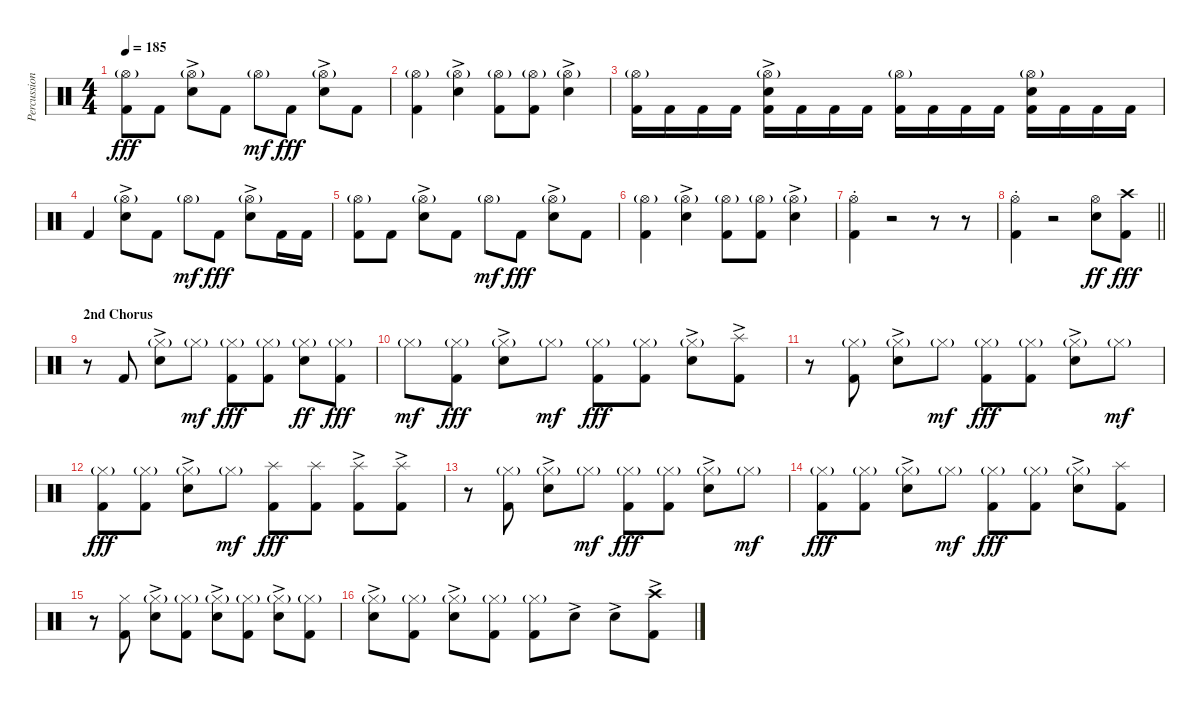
\track ("Percussion , Drums - Travis Smith" "Percussion") {instrument percussion}
\staff {score}
\articulation defaults
\ts (4 4)
\tempo 185
\clef neutral
\ks c
("Hi-Hat (open)"{g} "Kick (hit) 2").8{dy fff} "Kick (hit) 2".8 ("Hi-Hat (open)"{g} "Electric Snare (hit)"{ac}).8 "Kick (hit) 2".8 "Hi-Hat (open)"{g}.8{dy mf} "Kick (hit) 2".8{dy fff} ("Hi-Hat (open)"{g} "Electric Snare (hit)"{ac}).8 "Kick (hit) 2".8 |
("Hi-Hat (open)"{g} "Kick (hit) 2").4 ("Hi-Hat (open)"{g} "Electric Snare (hit)"{ac}).4 ("Hi-Hat (open)"{g} "Kick (hit) 2").8 ("Hi-Hat (open)"{g} "Kick (hit) 2").8 ("Hi-Hat (open)"{g} "Electric Snare (hit)"{ac}).4 |
("Hi-Hat (open)"{g} "Kick (hit) 2").16 "Kick (hit) 2".16 "Kick (hit) 2".16 "Kick (hit) 2".16 ("Hi-Hat (open)"{g} "Electric Snare (hit)"{ac} "Kick (hit) 2").16 "Kick (hit) 2".16 "Kick (hit) 2".16 "Kick (hit) 2".16 ("Hi-Hat (open)"{g} "Kick (hit) 2").16 "Kick (hit) 2".16 "Kick (hit) 2".16 "Kick (hit) 2".16 ("Hi-Hat (open)"{g} "Electric Snare (hit)" "Kick (hit) 2").16 "Kick (hit) 2".16 "Kick (hit) 2".16 "Kick (hit) 2".16 |
"Kick (hit) 2".4 ("Hi-Hat (open)"{g} "Electric Snare (hit)"{ac}).8 "Kick (hit) 2".8 "Hi-Hat (open)"{g}.8{dy mf} "Kick (hit) 2".8{dy fff} ("Hi-Hat (open)"{g} "Electric Snare (hit)"{ac}).8 "Kick (hit) 2".16 "Kick (hit) 2".16 |
("Hi-Hat (open)"{g} "Kick (hit) 2").8 "Kick (hit) 2".8 ("Hi-Hat (open)"{g} "Electric Snare (hit)"{ac}).8 "Kick (hit) 2".8 "Hi-Hat (open)"{g}.8{dy mf} "Kick (hit) 2".8{dy fff} ("Hi-Hat (open)"{g} "Electric Snare (hit)"{ac}).8 "Kick (hit) 2".8 |
("Hi-Hat (open)"{g} "Kick (hit) 2").4 ("Hi-Hat (open)"{g} "Electric Snare (hit)"{ac}).4 ("Hi-Hat (open)"{g} "Kick (hit) 2").8 ("Hi-Hat (open)"{g} "Kick (hit) 2").8 ("Hi-Hat (open)"{g} "Electric Snare (hit)"{ac}).4 |
("Hi-Hat (open)" "Kick (hit) 2"{st}).4{volume 0} r.2 r.8 r.8{volume 16} |
\barLineRight lightlight
("Hi-Hat (open)" "Kick (hit) 2"{st}).4{volume 0} r.2 ("Hi-Hat (open)" "Electric Snare (hit)").8{dy ff volume 16} ("Crash high (hit)" "Kick (hit) 2").8{dy fff} |
\section ("" "2nd Chorus")
r.8 "Kick (hit) 2".8 ("Hi-Hat (closed)"{g} "Electric Snare (hit)"{ac}).8 "Hi-Hat (closed)"{g}.8{dy mf} ("Hi-Hat (closed)"{g} "Kick (hit) 2").8{dy fff} ("Hi-Hat (closed)"{g} "Kick (hit) 2").8 ("Hi-Hat (closed)"{g} "Electric Snare (hit)").8{dy ff} ("Hi-Hat (closed)"{g} "Kick (hit) 2").8{dy fff} |
"Hi-Hat (closed)"{g}.8{dy mf} ("Hi-Hat (closed)"{g} "Kick (hit) 2").8{dy fff} ("Hi-Hat (closed)"{g} "Electric Snare (hit)"{ac}).8 "Hi-Hat (closed)"{g}.8{dy mf} ("Hi-Hat (closed)"{g} "Kick (hit) 2").8{dy fff} ("Hi-Hat (closed)"{g} "Kick (hit) 2").8 ("Hi-Hat (closed)"{g} "Electric Snare (hit)"{ac}).8 ("Splash (hit)"{ac} "Kick (hit) 2").8 |
r.8 ("Hi-Hat (closed)"{g} "Kick (hit) 2").8 ("Hi-Hat (closed)"{g} "Electric Snare (hit)"{ac}).8 "Hi-Hat (closed)"{g}.8{dy mf} ("Hi-Hat (closed)"{g} "Kick (hit) 2").8{dy fff} ("Hi-Hat (closed)"{g} "Kick (hit) 2").8 ("Hi-Hat (closed)"{g} "Electric Snare (hit)"{ac}).8 "Hi-Hat (closed)"{g}.8{dy mf} |
("Hi-Hat (closed)"{g} "Kick (hit) 2").8{dy fff} ("Hi-Hat (closed)"{g} "Kick (hit) 2").8 ("Hi-Hat (closed)"{g} "Electric Snare (hit)"{ac}).8 "Hi-Hat (closed)"{g}.8{dy mf} ("Splash (hit)" "Kick (hit) 2").8{dy fff} ("Splash (hit)" "Kick (hit) 2").8 ("Splash (hit)"{ac} "Kick (hit) 2").8 ("Splash (hit)"{ac} "Kick (hit) 2").8 |
r.8 ("Hi-Hat (closed)"{g} "Kick (hit) 2").8 ("Hi-Hat (closed)"{g} "Electric Snare (hit)"{ac}).8 "Hi-Hat (closed)"{g}.8{dy mf} ("Hi-Hat (closed)"{g} "Kick (hit) 2").8{dy fff} ("Hi-Hat (closed)"{g} "Kick (hit) 2").8 ("Hi-Hat (closed)"{g} "Electric Snare (hit)"{ac}).8 "Hi-Hat (closed)"{g}.8{dy mf} |
("Hi-Hat (closed)"{g} "Kick (hit) 2").8{dy fff} ("Hi-Hat (closed)"{g} "Kick (hit) 2").8 ("Hi-Hat (closed)"{g} "Electric Snare (hit)"{ac}).8 "Hi-Hat (closed)"{g}.8{dy mf} ("Hi-Hat (closed)"{g} "Kick (hit) 2").8{dy fff} ("Hi-Hat (closed)"{g} "Kick (hit) 2").8 ("Hi-Hat (closed)"{g} "Electric Snare (hit)"{ac}).8 ("Splash (hit)" "Kick (hit) 2").8 |
r.8 ("Hi-Hat (closed)" "Kick (hit) 2").8 ("Hi-Hat (closed)"{g} "Electric Snare (hit)"{ac}).8 ("Hi-Hat (closed)"{g} "Kick (hit) 2").8 ("Hi-Hat (closed)"{g} "Electric Snare (hit)"{ac}).8 ("Hi-Hat (closed)"{g} "Kick (hit) 2").8 ("Hi-Hat (closed)"{g} "Electric Snare (hit)"{ac}).8 ("Hi-Hat (closed)"{g} "Kick (hit) 2").8 |
("Hi-Hat (closed)"{g} "Electric Snare (hit)"{ac}).8 ("Hi-Hat (closed)"{g} "Kick (hit) 2").8 ("Hi-Hat (closed)"{g} "Electric Snare (hit)"{ac}).8 ("Hi-Hat (closed)"{g} "Kick (hit) 2").8 ("Hi-Hat (closed)"{g} "Kick (hit) 2").8 "Electric Snare (hit)"{ac}.8 "Electric Snare (hit)"{ac}.8 ("Crash high (hit)"{ac} "Kick (hit) 2").8
